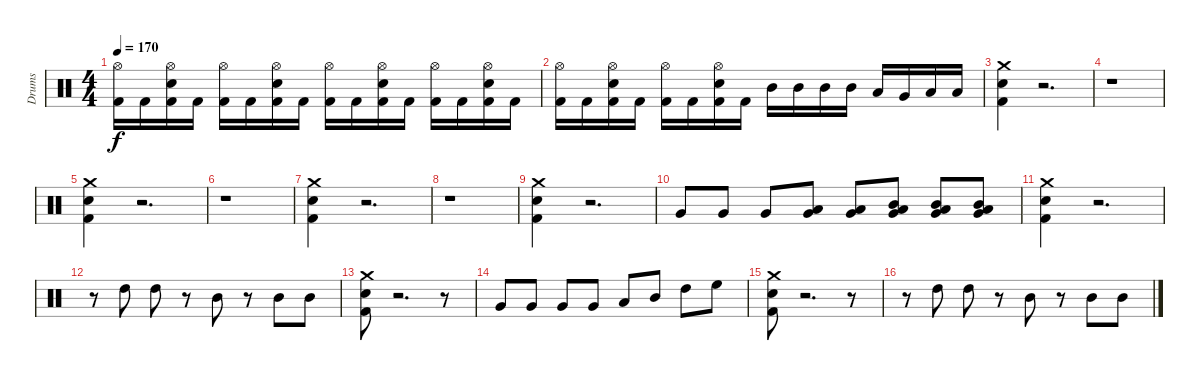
\track ("Drums" "Drums") {instrument percussion}
\staff {score}
\articulation defaults
\ts (4 4)
\tempo 170
\clef neutral
\ks c
("Hi-Hat (open)" "Kick (hit) 2").16{dy f} "Kick (hit) 2".16 ("Hi-Hat (open)" "Kick (hit) 2" "Electric Snare (hit)").16 "Kick (hit) 2".16 ("Hi-Hat (open)" "Kick (hit) 2").16 "Kick (hit) 2".16 ("Hi-Hat (open)" "Kick (hit) 2" "Electric Snare (hit)").16 "Kick (hit) 2".16 ("Hi-Hat (open)" "Kick (hit) 2").16 "Kick (hit) 2".16 ("Hi-Hat (open)" "Kick (hit) 2" "Electric Snare (hit)").16 "Kick (hit) 2".16 ("Hi-Hat (open)" "Kick (hit) 2").16 "Kick (hit) 2".16 ("Hi-Hat (open)" "Kick (hit) 2" "Electric Snare (hit)").16 "Kick (hit) 2".16 |
("Hi-Hat (open)" "Kick (hit) 2").16 "Kick (hit) 2".16 ("Hi-Hat (open)" "Kick (hit) 2" "Electric Snare (hit)").16 "Kick (hit) 2".16 ("Hi-Hat (open)" "Kick (hit) 2").16 "Kick (hit) 2".16 ("Hi-Hat (open)" "Kick (hit) 2" "Electric Snare (hit)").16 "Kick (hit) 2".16 "Mid Tom (hit)".16 "Mid Tom (hit)".16 "Mid Tom (hit)".16 "Mid Tom (hit)".16 "Low Tom (hit)".16 "Very Low Tom (hit)".16 "Low Tom (hit)".16 "Low Tom (hit)".16 |
("Crash medium (hit)" "Electric Snare (hit)" "Kick (hit) 2").4 r.2{d} |
r.1 |
("Crash medium (hit)" "Electric Snare (hit)" "Kick (hit) 2").4 r.2{d} |
r.1 |
("Crash medium (hit)" "Electric Snare (hit)" "Kick (hit) 2").4 r.2{d} |
r.1 |
("Crash medium (hit)" "Electric Snare (hit)" "Kick (hit) 2").4 r.2{d} |
"Very Low Tom (hit)".8 "Very Low Tom (hit)".8 "Very Low Tom (hit)".8 ("Low Tom (hit)" "Very Low Tom (hit)").8 ("Low Tom (hit)" "Very Low Tom (hit)").8 ("Mid Tom (hit)" "Low Tom (hit)" "Very Low Tom (hit)").8 ("Mid Tom (hit)" "Low Tom (hit)" "Very Low Tom (hit)").8 ("Mid Tom (hit)" "Low Tom (hit)" "Very Low Tom (hit)").8 |
("Crash medium (hit)" "Electric Snare (hit)" "Kick (hit) 2").4 r.2{d} |
r.8 "High Tom (hit)".8 "High Tom (hit)".8 r.8 "Mid Tom (hit)".8 r.8 "Mid Tom (hit)".8 "Mid Tom (hit)".8 |
("Crash medium (hit)" "Electric Snare (hit)" "Kick (hit) 2").8 r.2{d} r.8 |
"Very Low Tom (hit)".8 "Very Low Tom (hit)".8 "Very Low Tom (hit)".8 "Very Low Tom (hit)".8 "Low Tom (hit)".8 "Mid Tom (hit)".8 "High Tom (hit)".8 "High Floor Tom (hit)".8 |
("Crash medium (hit)" "Electric Snare (hit)" "Kick (hit) 2").8 r.2{d} r.8 |
r.8 "High Tom (hit)".8 "High Tom (hit)".8 r.8 "Mid Tom (hit)".8 r.8 "Mid Tom (hit)".8 "Mid Tom (hit)".8
